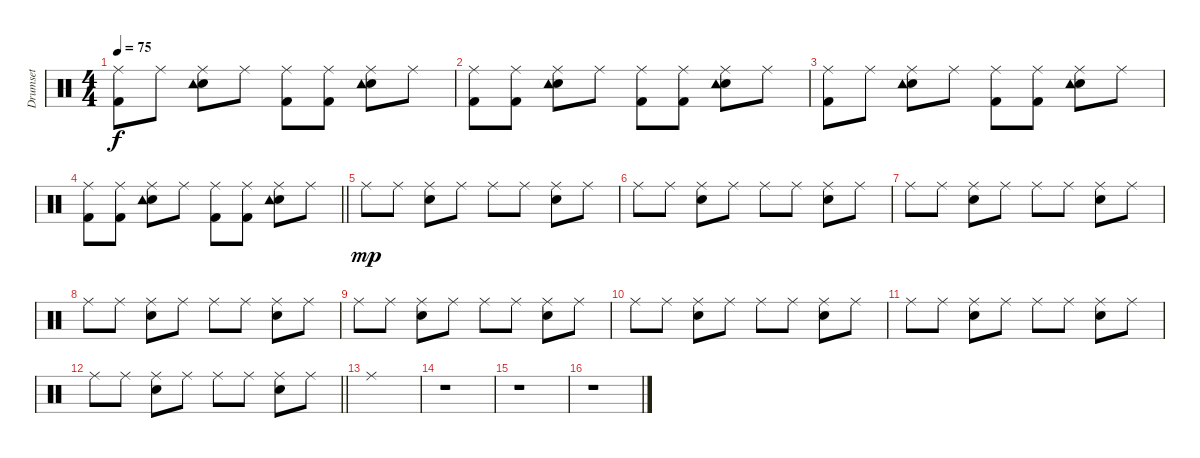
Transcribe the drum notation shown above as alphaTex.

\track ("Drumset" "Drumset") {instrument percussion}
\staff {score}
\articulation defaults
\ts (4 4)
\tempo 75
\clef neutral
\ks c
("Ride (middle)" "Kick (hit) 2").8{dy f} "Ride (middle)".8 ("Ride (middle)" "Electric Snare (hit)" "Tambourine (hit)").8 "Ride (middle)".8 ("Ride (middle)" "Kick (hit) 2").8 ("Ride (middle)" "Kick (hit) 2").8 ("Ride (middle)" "Electric Snare (hit)" "Tambourine (hit)").8 "Ride (middle)".8 |
("Ride (middle)" "Kick (hit) 2").8 ("Ride (middle)" "Kick (hit) 2").8 ("Ride (middle)" "Electric Snare (hit)" "Tambourine (hit)").8 "Ride (middle)".8 ("Ride (middle)" "Kick (hit) 2").8 ("Ride (middle)" "Kick (hit) 2").8 ("Ride (middle)" "Electric Snare (hit)" "Tambourine (hit)").8 "Ride (middle)".8 |
("Ride (middle)" "Kick (hit) 2").8 "Ride (middle)".8 ("Ride (middle)" "Electric Snare (hit)" "Tambourine (hit)").8 "Ride (middle)".8 ("Ride (middle)" "Kick (hit) 2").8 ("Ride (middle)" "Kick (hit) 2").8 ("Ride (middle)" "Electric Snare (hit)" "Tambourine (hit)").8 "Ride (middle)".8 |
\barLineRight lightlight
("Ride (middle)" "Kick (hit) 2").8 ("Ride (middle)" "Kick (hit) 2").8 ("Ride (middle)" "Electric Snare (hit)" "Tambourine (hit)").8 "Ride (middle)".8 ("Ride (middle)" "Kick (hit) 2").8 ("Ride (middle)" "Kick (hit) 2").8 ("Ride (middle)" "Electric Snare (hit)" "Tambourine (hit)").8 "Ride (middle)".8 |
"Ride (middle)".8{dy mp} "Ride (middle)".8 ("Ride (middle)" "Electric Snare (hit)").8 "Ride (middle)".8 "Ride (middle)".8 "Ride (middle)".8 ("Ride (middle)" "Electric Snare (hit)").8 "Ride (middle)".8 |
"Ride (middle)".8 "Ride (middle)".8 ("Ride (middle)" "Electric Snare (hit)").8 "Ride (middle)".8 "Ride (middle)".8 "Ride (middle)".8 ("Ride (middle)" "Electric Snare (hit)").8 "Ride (middle)".8 |
"Ride (middle)".8 "Ride (middle)".8 ("Ride (middle)" "Electric Snare (hit)").8 "Ride (middle)".8 "Ride (middle)".8 "Ride (middle)".8 ("Ride (middle)" "Electric Snare (hit)").8 "Ride (middle)".8 |
"Ride (middle)".8 "Ride (middle)".8 ("Ride (middle)" "Electric Snare (hit)").8 "Ride (middle)".8 "Ride (middle)".8 "Ride (middle)".8 ("Ride (middle)" "Electric Snare (hit)").8 "Ride (middle)".8 |
"Ride (middle)".8 "Ride (middle)".8 ("Ride (middle)" "Electric Snare (hit)").8 "Ride (middle)".8 "Ride (middle)".8 "Ride (middle)".8 ("Ride (middle)" "Electric Snare (hit)").8 "Ride (middle)".8 |
"Ride (middle)".8 "Ride (middle)".8 ("Ride (middle)" "Electric Snare (hit)").8 "Ride (middle)".8 "Ride (middle)".8 "Ride (middle)".8 ("Ride (middle)" "Electric Snare (hit)").8 "Ride (middle)".8 |
"Ride (middle)".8 "Ride (middle)".8 ("Ride (middle)" "Electric Snare (hit)").8 "Ride (middle)".8 "Ride (middle)".8 "Ride (middle)".8 ("Ride (middle)" "Electric Snare (hit)").8 "Ride (middle)".8 |
\barLineRight lightlight "Ride (middle)".8 "Ride (middle)".8
("Ride (middle)" "Electric Snare (hit)").8 "Ride (middle)".8 "Ride (middle)".8 "Ride (middle)".8 ("Ride (middle)" "Electric Snare (hit)").8 "Ride (middle)".8 |
"Ride (middle)".1 |
r.1 |
r.1 |
r.1
